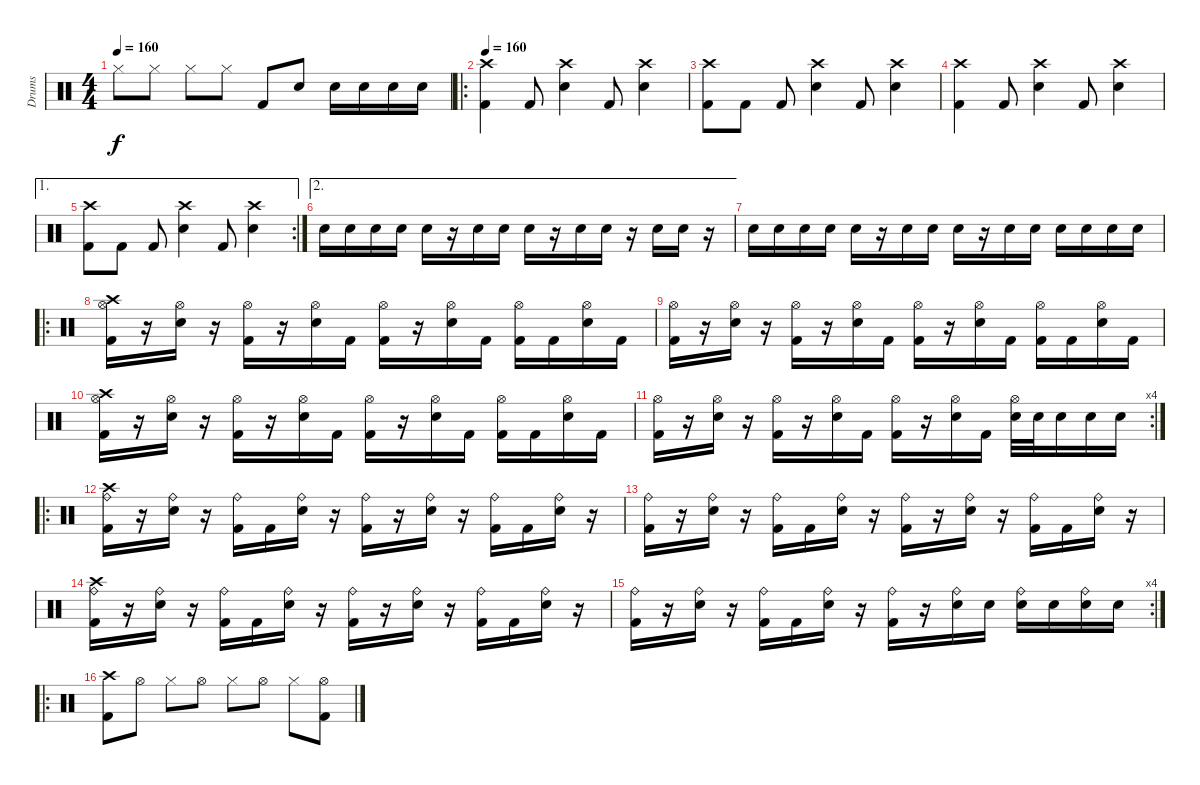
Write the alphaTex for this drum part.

\track ("Drums" "Drums") {instrument percussion}
\staff {score}
\articulation defaults
\ts (4 4)
\tempo 160
\clef neutral
\ks c "Hi-Hat (closed)".8{dy f} "Hi-Hat (closed)".8 "Hi-Hat (closed)".8 "Hi-Hat (closed)".8 "Kick (hit) 2".8 "Snare (hit) 2".8 "Snare (hit) 2".16 "Snare (hit) 2".16 "Snare (hit) 2".16 "Snare (hit) 2".16
|
\ro
\tempo 160
("Kick (hit) 2" "Crash high (hit)").4 "Kick (hit) 2".8 ("Snare (hit) 2" "Crash high (hit)").4 "Kick (hit) 2".8 ("Snare (hit) 2" "Crash high (hit)").4 |
("Kick (hit) 2" "Crash high (hit)").8 "Kick (hit) 2".8 "Kick (hit) 2".8 ("Snare (hit) 2" "Crash high (hit)").4 "Kick (hit) 2".8 ("Snare (hit) 2" "Crash high (hit)").4 |
("Kick (hit) 2" "Crash high (hit)").4 "Kick (hit) 2".8 ("Snare (hit) 2" "Crash high (hit)").4 "Kick (hit) 2".8 ("Snare (hit) 2" "Crash high (hit)").4 |
\ae 1
\rc 2
("Kick (hit) 2" "Crash high (hit)").8 "Kick (hit) 2".8 "Kick (hit) 2".8 ("Snare (hit) 2" "Crash high (hit)").4 "Kick (hit) 2".8 ("Snare (hit) 2" "Crash high (hit)").4 |
\ae 2 "Snare (hit) 2".16 "Snare (hit) 2".16 "Snare (hit) 2".16 "Snare (hit) 2".16 "Snare (hit) 2".16
r.16 "Snare (hit) 2".16 "Snare (hit) 2".16 "Snare (hit) 2".16 r.16 "Snare (hit) 2".16 "Snare (hit) 2".16 r.16 "Snare (hit) 2".16 "Snare (hit) 2".16 r.16 |
"Snare (hit) 2".16 "Snare (hit) 2".16 "Snare (hit) 2".16 "Snare (hit) 2".16 "Snare (hit) 2".16 r.16 "Snare (hit) 2".16 "Snare (hit) 2".16 "Snare (hit) 2".16 r.16 "Snare (hit) 2".16 "Snare (hit) 2".16 "Snare (hit) 2".16 "Snare (hit) 2".16 "Snare (hit) 2".16 "Snare (hit) 2".16 |
\ro
("Hi-Hat (open)" "Kick (hit) 2" "Crash high (hit)").16 r.16 ("Hi-Hat (open)" "Snare (hit) 2").16 r.16 ("Hi-Hat (open)" "Kick (hit) 2").16 r.16 ("Hi-Hat (open)" "Snare (hit) 2").16 "Kick (hit) 2".16 ("Hi-Hat (open)" "Kick (hit) 2").16 r.16 ("Hi-Hat (open)" "Snare (hit) 2").16 "Kick (hit) 2".16 ("Hi-Hat (open)" "Kick (hit) 2").16 "Kick (hit) 2".16 ("Hi-Hat (open)" "Snare (hit) 2").16 "Kick (hit) 2".16 |
("Hi-Hat (open)" "Kick (hit) 2").16 r.16 ("Hi-Hat (open)" "Snare (hit) 2").16 r.16 ("Hi-Hat (open)" "Kick (hit) 2").16 r.16 ("Hi-Hat (open)" "Snare (hit) 2").16 "Kick (hit) 2".16 ("Hi-Hat (open)" "Kick (hit) 2").16 r.16 ("Hi-Hat (open)" "Snare (hit) 2").16 "Kick (hit) 2".16 ("Hi-Hat (open)" "Kick (hit) 2").16 "Kick (hit) 2".16 ("Hi-Hat (open)" "Snare (hit) 2").16 "Kick (hit) 2".16 |
("Hi-Hat (open)" "Kick (hit) 2" "Crash high (hit)").16 r.16 ("Hi-Hat (open)" "Snare (hit) 2").16 r.16 ("Hi-Hat (open)" "Kick (hit) 2").16 r.16 ("Hi-Hat (open)" "Snare (hit) 2").16 "Kick (hit) 2".16 ("Hi-Hat (open)" "Kick (hit) 2").16 r.16 ("Hi-Hat (open)" "Snare (hit) 2").16 "Kick (hit) 2".16 ("Hi-Hat (open)" "Kick (hit) 2").16 "Kick (hit) 2".16 ("Hi-Hat (open)" "Snare (hit) 2").16 "Kick (hit) 2".16 |
\rc 4
("Hi-Hat (open)" "Kick (hit) 2").16 r.16 ("Hi-Hat (open)" "Snare (hit) 2").16 r.16 ("Hi-Hat (open)" "Kick (hit) 2").16 r.16 ("Hi-Hat (open)" "Snare (hit) 2").16 "Kick (hit) 2".16 ("Hi-Hat (open)" "Kick (hit) 2").16 r.16 ("Hi-Hat (open)" "Snare (hit) 2").16 "Kick (hit) 2".16 ("Hi-Hat (open)" "Snare (hit) 2").32 "Snare (hit) 2".32 "Snare (hit) 2".16 "Snare (hit) 2".16 "Snare (hit) 2".16 |
\ro
("Ride (bell)" "Kick (hit) 2" "Crash high (hit)").16 r.16 ("Ride (bell)" "Snare (hit) 2").16 r.16 ("Ride (bell)" "Kick (hit) 2").16 "Kick (hit) 2".16 ("Ride (bell)" "Snare (hit) 2").16 r.16 ("Ride (bell)" "Kick (hit) 2").16 r.16 ("Ride (bell)" "Snare (hit) 2").16 r.16 ("Ride (bell)" "Kick (hit) 2").16 "Kick (hit) 2".16 ("Ride (bell)" "Snare (hit) 2").16 r.16 |
("Ride (bell)" "Kick (hit) 2").16 r.16 ("Ride (bell)" "Snare (hit) 2").16 r.16 ("Ride (bell)" "Kick (hit) 2").16 "Kick (hit) 2".16 ("Ride (bell)" "Snare (hit) 2").16 r.16 ("Ride (bell)" "Kick (hit) 2").16 r.16 ("Ride (bell)" "Snare (hit) 2").16 r.16 ("Ride (bell)" "Kick (hit) 2").16 "Kick (hit) 2".16 ("Ride (bell)" "Snare (hit) 2").16 r.16 |
("Ride (bell)" "Kick (hit) 2" "Crash high (hit)").16 r.16 ("Ride (bell)" "Snare (hit) 2").16 r.16 ("Ride (bell)" "Kick (hit) 2").16 "Kick (hit) 2".16 ("Ride (bell)" "Snare (hit) 2").16 r.16 ("Ride (bell)" "Kick (hit) 2").16 r.16 ("Ride (bell)" "Snare (hit) 2").16 r.16 ("Ride (bell)" "Kick (hit) 2").16 "Kick (hit) 2".16 ("Ride (bell)" "Snare (hit) 2").16 r.16 |
\rc 4
("Ride (bell)" "Kick (hit) 2").16 r.16 ("Ride (bell)" "Snare (hit) 2").16 r.16 ("Ride (bell)" "Kick (hit) 2").16 "Kick (hit) 2".16 ("Ride (bell)" "Snare (hit) 2").16 r.16 ("Ride (bell)" "Kick (hit) 2").16 r.16 ("Ride (bell)" "Snare (hit) 2").16 "Snare (hit) 2".16 ("Ride (bell)" "Snare (hit) 2").16 "Snare (hit) 2".16 ("Ride (bell)" "Snare (hit) 2").16 "Snare (hit) 2".16 |
\ro
("Kick (hit) 2" "Crash high (hit)").8 "Hi-Hat (open)".8 "Hi-Hat (closed)".8 "Hi-Hat (open)".8 "Hi-Hat (closed)".8 "Hi-Hat (open)".8 "Hi-Hat (closed)".8 ("Hi-Hat (open)" "Kick (hit) 2").8
